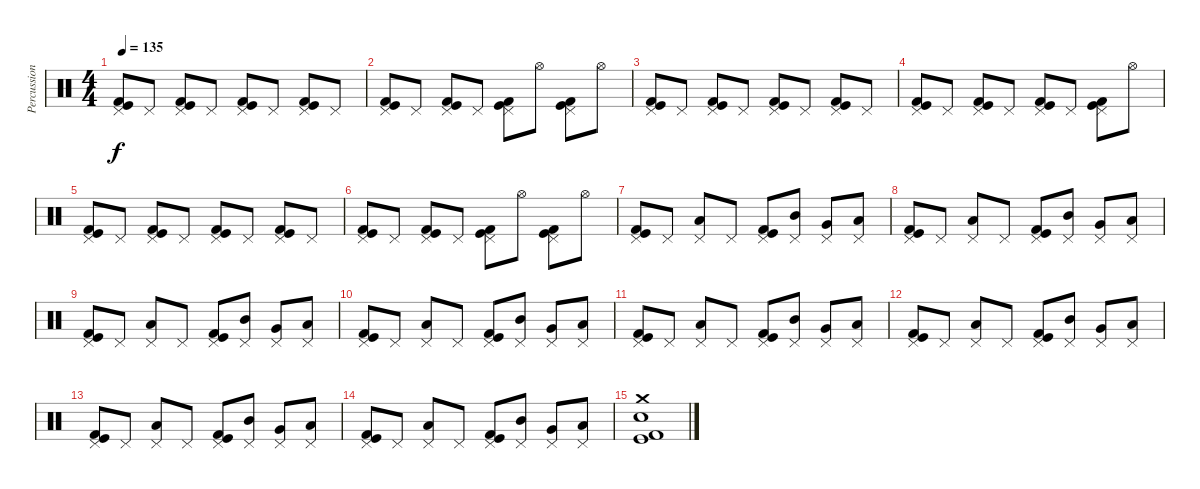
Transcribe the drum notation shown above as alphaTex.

\track ("Percussions" "Percussion") {instrument percussion}
\staff {score}
\articulation defaults
\ts (4 4)
\tempo 135
\clef neutral
\ks c
("Pedal Hi-Hat (hit)" "Kick (hit)" "Kick (hit) 2").8{dy f} "Pedal Hi-Hat (hit)".8 ("Pedal Hi-Hat (hit)" "Kick (hit) 2" "Kick (hit)").8 "Pedal Hi-Hat (hit)".8 ("Pedal Hi-Hat (hit)" "Kick (hit)" "Kick (hit) 2").8 "Pedal Hi-Hat (hit)".8 ("Pedal Hi-Hat (hit)" "Kick (hit) 2" "Kick (hit)").8 "Pedal Hi-Hat (hit)".8 |
("Pedal Hi-Hat (hit)" "Kick (hit)" "Kick (hit) 2").8 "Pedal Hi-Hat (hit)".8 ("Pedal Hi-Hat (hit)" "Kick (hit) 2" "Kick (hit)").8 "Pedal Hi-Hat (hit)".8 ("Pedal Hi-Hat (hit)" "Kick (hit)" "Kick (hit) 2").8 "Hi-Hat (open)".8 ("Pedal Hi-Hat (hit)" "Kick (hit) 2" "Kick (hit)").8 "Hi-Hat (open)".8 |
("Pedal Hi-Hat (hit)" "Kick (hit)" "Kick (hit) 2").8 "Pedal Hi-Hat (hit)".8 ("Pedal Hi-Hat (hit)" "Kick (hit) 2" "Kick (hit)").8 "Pedal Hi-Hat (hit)".8 ("Pedal Hi-Hat (hit)" "Kick (hit)" "Kick (hit) 2").8 "Pedal Hi-Hat (hit)".8 ("Pedal Hi-Hat (hit)" "Kick (hit) 2" "Kick (hit)").8 "Pedal Hi-Hat (hit)".8 |
("Pedal Hi-Hat (hit)" "Kick (hit)" "Kick (hit) 2").8 "Pedal Hi-Hat (hit)".8 ("Pedal Hi-Hat (hit)" "Kick (hit) 2" "Kick (hit)").8 "Pedal Hi-Hat (hit)".8 ("Pedal Hi-Hat (hit)" "Kick (hit)" "Kick (hit) 2").8 "Pedal Hi-Hat (hit)".8 ("Pedal Hi-Hat (hit)" "Kick (hit) 2" "Kick (hit)").8 "Hi-Hat (open)".8 |
("Pedal Hi-Hat (hit)" "Kick (hit)" "Kick (hit) 2").8 "Pedal Hi-Hat (hit)".8 ("Pedal Hi-Hat (hit)" "Kick (hit) 2" "Kick (hit)").8 "Pedal Hi-Hat (hit)".8 ("Pedal Hi-Hat (hit)" "Kick (hit)" "Kick (hit) 2").8 "Pedal Hi-Hat (hit)".8 ("Pedal Hi-Hat (hit)" "Kick (hit) 2" "Kick (hit)").8 "Pedal Hi-Hat (hit)".8 |
("Pedal Hi-Hat (hit)" "Kick (hit)" "Kick (hit) 2").8 "Pedal Hi-Hat (hit)".8 ("Pedal Hi-Hat (hit)" "Kick (hit) 2" "Kick (hit)").8 "Pedal Hi-Hat (hit)".8 ("Pedal Hi-Hat (hit)" "Kick (hit)" "Kick (hit) 2").8 "Hi-Hat (open)".8 ("Pedal Hi-Hat (hit)" "Kick (hit) 2" "Kick (hit)").8 "Hi-Hat (open)".8 |
("Pedal Hi-Hat (hit)" "Kick (hit)" "Kick (hit) 2").8 "Pedal Hi-Hat (hit)".8 ("Pedal Hi-Hat (hit)" "Low Tom (hit)").8 "Pedal Hi-Hat (hit)".8 ("Pedal Hi-Hat (hit)" "Kick (hit)" "Kick (hit) 2").8 ("Pedal Hi-Hat (hit)" "Mid Tom (hit)").8 ("Pedal Hi-Hat (hit)" "Very Low Tom (hit)").8 ("Pedal Hi-Hat (hit)" "Low Floor Tom (hit)").8 |
("Pedal Hi-Hat (hit)" "Kick (hit)" "Kick (hit) 2").8 "Pedal Hi-Hat (hit)".8 ("Pedal Hi-Hat (hit)" "Low Tom (hit)").8 "Pedal Hi-Hat (hit)".8 ("Pedal Hi-Hat (hit)" "Kick (hit)" "Kick (hit) 2").8 ("Pedal Hi-Hat (hit)" "Mid Tom (hit)").8 ("Pedal Hi-Hat (hit)" "Very Low Tom (hit)").8 ("Pedal Hi-Hat (hit)" "Low Floor Tom (hit)").8 |
("Pedal Hi-Hat (hit)" "Kick (hit)" "Kick (hit) 2").8 "Pedal Hi-Hat (hit)".8 ("Pedal Hi-Hat (hit)" "Low Tom (hit)").8 "Pedal Hi-Hat (hit)".8 ("Pedal Hi-Hat (hit)" "Kick (hit)" "Kick (hit) 2").8 ("Pedal Hi-Hat (hit)" "Mid Tom (hit)").8 ("Pedal Hi-Hat (hit)" "Very Low Tom (hit)").8 ("Pedal Hi-Hat (hit)" "Low Floor Tom (hit)").8 |
("Pedal Hi-Hat (hit)" "Kick (hit)" "Kick (hit) 2").8 "Pedal Hi-Hat (hit)".8 ("Pedal Hi-Hat (hit)" "Low Tom (hit)").8 "Pedal Hi-Hat (hit)".8 ("Pedal Hi-Hat (hit)" "Kick (hit)" "Kick (hit) 2").8 ("Pedal Hi-Hat (hit)" "Mid Tom (hit)").8 ("Pedal Hi-Hat (hit)" "Very Low Tom (hit)").8 ("Pedal Hi-Hat (hit)" "Low Floor Tom (hit)").8 |
("Pedal Hi-Hat (hit)" "Kick (hit)" "Kick (hit) 2").8 "Pedal Hi-Hat (hit)".8 ("Pedal Hi-Hat (hit)" "Low Tom (hit)").8 "Pedal Hi-Hat (hit)".8 ("Pedal Hi-Hat (hit)" "Kick (hit)" "Kick (hit) 2").8 ("Pedal Hi-Hat (hit)" "Mid Tom (hit)").8 ("Pedal Hi-Hat (hit)" "Very Low Tom (hit)").8 ("Pedal Hi-Hat (hit)" "Low Floor Tom (hit)").8 |
("Pedal Hi-Hat (hit)" "Kick (hit)" "Kick (hit) 2").8 "Pedal Hi-Hat (hit)".8 ("Pedal Hi-Hat (hit)" "Low Tom (hit)").8 "Pedal Hi-Hat (hit)".8 ("Pedal Hi-Hat (hit)" "Kick (hit)" "Kick (hit) 2").8 ("Pedal Hi-Hat (hit)" "Mid Tom (hit)").8 ("Pedal Hi-Hat (hit)" "Very Low Tom (hit)").8 ("Pedal Hi-Hat (hit)" "Low Floor Tom (hit)").8 |
("Pedal Hi-Hat (hit)" "Kick (hit)" "Kick (hit) 2").8 "Pedal Hi-Hat (hit)".8 ("Pedal Hi-Hat (hit)" "Low Tom (hit)").8 "Pedal Hi-Hat (hit)".8 ("Pedal Hi-Hat (hit)" "Kick (hit)" "Kick (hit) 2").8 ("Pedal Hi-Hat (hit)" "Mid Tom (hit)").8 ("Pedal Hi-Hat (hit)" "Very Low Tom (hit)").8 ("Pedal Hi-Hat (hit)" "Low Floor Tom (hit)").8 |
("Pedal Hi-Hat (hit)" "Kick (hit)" "Kick (hit) 2").8 "Pedal Hi-Hat (hit)".8 ("Pedal Hi-Hat (hit)" "Low Tom (hit)").8 "Pedal Hi-Hat (hit)".8 ("Pedal Hi-Hat (hit)" "Kick (hit)" "Kick (hit) 2").8 ("Pedal Hi-Hat (hit)" "Mid Tom (hit)").8 ("Pedal Hi-Hat (hit)" "Very Low Tom (hit)").8 ("Pedal Hi-Hat (hit)" "Low Floor Tom (hit)").8 |
("Crash medium (hit)" "Electric Snare (hit)" "Kick (hit)" "Kick (hit) 2").1
